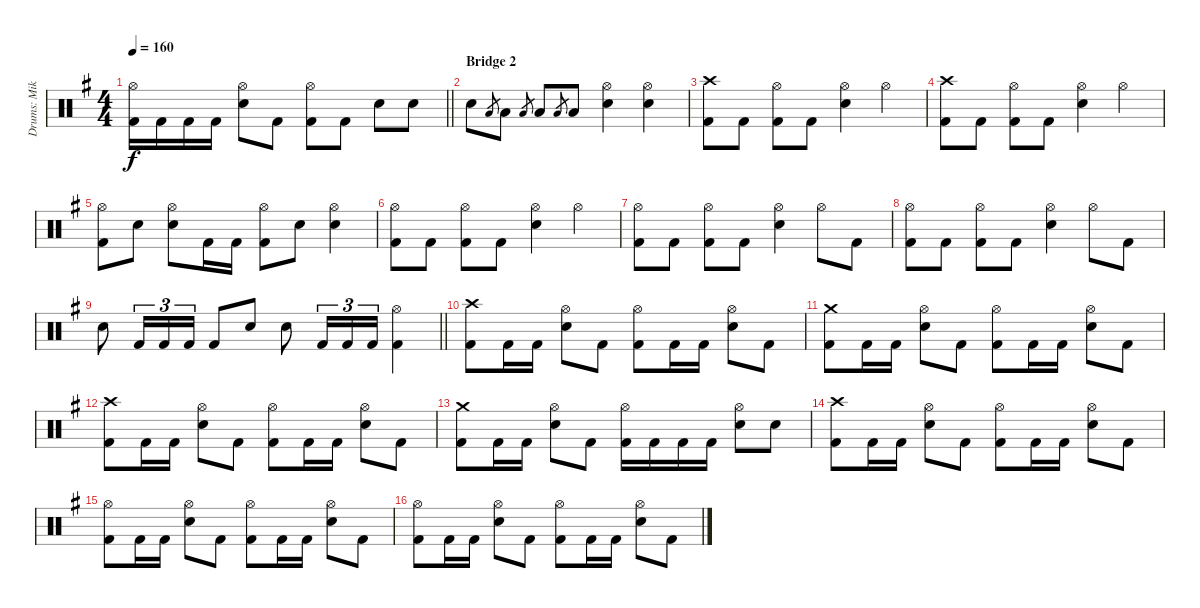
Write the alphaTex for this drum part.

\track ("Drums: Mikko Korsbäck" "Drums: Mik") {instrument percussion}
\staff {score}
\articulation defaults
\ts (4 4)
\tempo 160
\clef neutral
\barLineRight lightlight
\ks eminor
("Hi-Hat (open)" "Kick (hit) 2").16{dy f} "Kick (hit) 2".16 "Kick (hit) 2".16 "Kick (hit) 2".16 ("Hi-Hat (open)" "Electric Snare (hit)").8 "Kick (hit) 2".8 ("Hi-Hat (open)" "Kick (hit) 2").8 "Kick (hit) 2".8 "Electric Snare (hit)".8 "Electric Snare (hit)".8 |
\section ("" "Bridge 2")
"Electric Snare (hit)".8 "Low Tom (hit)".8{gr} "Low Tom (hit)".8 "Low Tom (hit)".8{gr} "Low Tom (hit)".8 "Low Tom (hit)".8{gr} "Low Tom (hit)".8 ("Hi-Hat (open)" "Electric Snare (hit)").4 ("Hi-Hat (open)" "Electric Snare (hit)").4 |
("Crash high (hit)" "Kick (hit) 2").8 "Kick (hit) 2".8 ("Hi-Hat (open)" "Kick (hit) 2").8 "Kick (hit) 2".8 ("Hi-Hat (open)" "Electric Snare (hit)").4 "Hi-Hat (open)".4 |
("Crash high (hit)" "Kick (hit) 2").8 "Kick (hit) 2".8 ("Hi-Hat (open)" "Kick (hit) 2").8 "Kick (hit) 2".8 ("Hi-Hat (open)" "Electric Snare (hit)").4 "Hi-Hat (open)".4 |
("Hi-Hat (open)" "Kick (hit) 2").8 "Electric Snare (hit)".8 ("Hi-Hat (open)" "Electric Snare (hit)").8 "Kick (hit) 2".16 "Kick (hit) 2".16 ("Hi-Hat (open)" "Kick (hit) 2").8 "Electric Snare (hit)".8 ("Hi-Hat (open)" "Electric Snare (hit)").4 |
("Hi-Hat (open)" "Kick (hit) 2").8 "Kick (hit) 2".8 ("Hi-Hat (open)" "Kick (hit) 2").8 "Kick (hit) 2".8 ("Hi-Hat (open)" "Electric Snare (hit)").4 "Hi-Hat (open)".4 |
("Hi-Hat (open)" "Kick (hit) 2").8 "Kick (hit) 2".8 ("Hi-Hat (open)" "Kick (hit) 2").8 "Kick (hit) 2".8 ("Hi-Hat (open)" "Electric Snare (hit)").4 "Hi-Hat (open)".8 "Kick (hit) 2".8 |
("Hi-Hat (open)" "Kick (hit) 2").8 "Kick (hit) 2".8 ("Hi-Hat (open)" "Kick (hit) 2").8 "Kick (hit) 2".8 ("Hi-Hat (open)" "Electric Snare (hit)").4 "Hi-Hat (open)".8 "Kick (hit) 2".8 |
\barLineRight lightlight "Electric Snare (hit)".8 "Kick (hit) 2".16{tu (3 2)} "Kick (hit) 2".16{tu (3 2)} "Kick (hit) 2".16{tu (3 2)} "Kick (hit) 2".8 "Electric Snare (hit)".8 "Electric Snare (hit)".8 "Kick (hit) 2".16{tu (3 2)} "Kick (hit) 2".16{tu (3 2)} "Kick (hit) 2".16{tu (3 2)}
("Hi-Hat (open)" "Kick (hit) 2").4 |
("Crash high (hit)" "Kick (hit) 2").8 "Kick (hit) 2".16 "Kick (hit) 2".16 ("Hi-Hat (open)" "Electric Snare (hit)").8 "Kick (hit) 2".8 ("Hi-Hat (open)" "Kick (hit) 2").8 "Kick (hit) 2".16 "Kick (hit) 2".16 ("Hi-Hat (open)" "Electric Snare (hit)").8 "Kick (hit) 2".8 |
("Crash medium (hit)" "Kick (hit) 2").8 "Kick (hit) 2".16 "Kick (hit) 2".16 ("Hi-Hat (open)" "Electric Snare (hit)").8 "Kick (hit) 2".8 ("Hi-Hat (open)" "Kick (hit) 2").8 "Kick (hit) 2".16 "Kick (hit) 2".16 ("Hi-Hat (open)" "Electric Snare (hit)").8 "Kick (hit) 2".8 |
("Crash high (hit)" "Kick (hit) 2").8 "Kick (hit) 2".16 "Kick (hit) 2".16 ("Hi-Hat (open)" "Electric Snare (hit)").8 "Kick (hit) 2".8 ("Hi-Hat (open)" "Kick (hit) 2").8 "Kick (hit) 2".16 "Kick (hit) 2".16 ("Hi-Hat (open)" "Electric Snare (hit)").8 "Kick (hit) 2".8 |
("Crash medium (hit)" "Kick (hit) 2").8 "Kick (hit) 2".16 "Kick (hit) 2".16 ("Hi-Hat (open)" "Electric Snare (hit)").8 "Kick (hit) 2".8 ("Hi-Hat (open)" "Kick (hit) 2").16 "Kick (hit) 2".16 "Kick (hit) 2".16 "Kick (hit) 2".16 ("Hi-Hat (open)" "Electric Snare (hit)").8 "Electric Snare (hit)".8 |
("Crash high (hit)" "Kick (hit) 2").8 "Kick (hit) 2".16 "Kick (hit) 2".16 ("Hi-Hat (open)" "Electric Snare (hit)").8 "Kick (hit) 2".8 ("Hi-Hat (open)" "Kick (hit) 2").8 "Kick (hit) 2".16 "Kick (hit) 2".16 ("Hi-Hat (open)" "Electric Snare (hit)").8 "Kick (hit) 2".8 |
("Hi-Hat (open)" "Kick (hit) 2").8 "Kick (hit) 2".16 "Kick (hit) 2".16 ("Hi-Hat (open)" "Electric Snare (hit)").8 "Kick (hit) 2".8 ("Hi-Hat (open)" "Kick (hit) 2").8 "Kick (hit) 2".16 "Kick (hit) 2".16 ("Hi-Hat (open)" "Electric Snare (hit)").8 "Kick (hit) 2".8 |
("Hi-Hat (open)" "Kick (hit) 2").8 "Kick (hit) 2".16 "Kick (hit) 2".16 ("Hi-Hat (open)" "Electric Snare (hit)").8 "Kick (hit) 2".8 ("Hi-Hat (open)" "Kick (hit) 2").8 "Kick (hit) 2".16 "Kick (hit) 2".16 ("Hi-Hat (open)" "Electric Snare (hit)").8 "Kick (hit) 2".8
